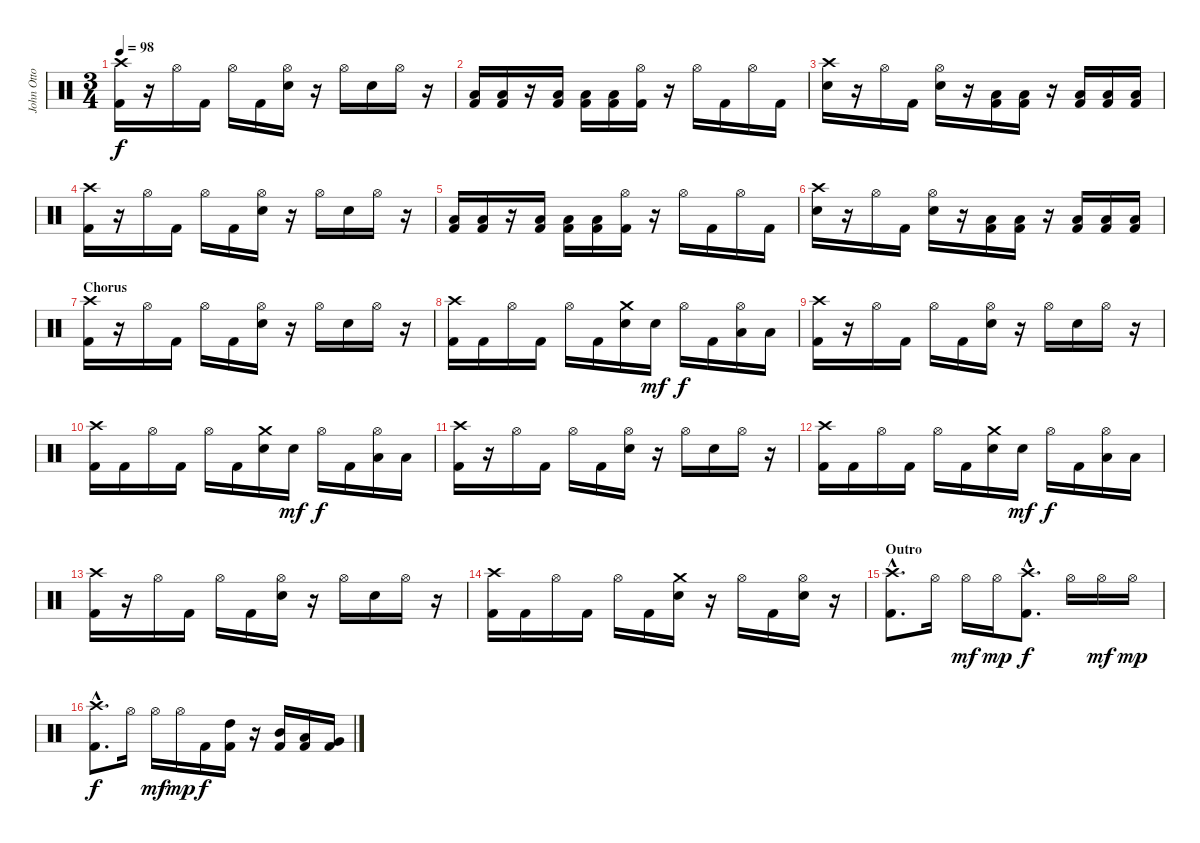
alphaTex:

\track ("John Otto - Drums" "John Otto ") {instrument percussion}
\staff {score}
\articulation defaults
\ts (3 4)
\tempo 98
\clef neutral
\ks c
("Crash high (hit)" "Kick (hit) 2").16{dy f} r.16 "Hi-Hat (open)".16 "Kick (hit) 2".16 "Hi-Hat (open)".16 "Kick (hit) 2".16 ("Hi-Hat (open)" "Electric Snare (hit)").16 r.16 "Hi-Hat (open)".16 "Electric Snare (hit)".16 "Hi-Hat (open)".16 r.16 |
("Kick (hit) 2" "Low Tom (hit)").16 ("Kick (hit) 2" "Low Tom (hit)").16 r.16 ("Kick (hit) 2" "Low Tom (hit)").16 ("Kick (hit) 2" "Low Tom (hit)").16 ("Kick (hit) 2" "Low Tom (hit)").16 ("Hi-Hat (open)" "Kick (hit) 2").16 r.16 "Hi-Hat (open)".16 "Kick (hit) 2".16 "Hi-Hat (open)".16 "Kick (hit) 2".16 |
("Crash high (hit)" "Electric Snare (hit)").16 r.16 "Hi-Hat (open)".16 "Kick (hit) 2".16 ("Hi-Hat (open)" "Electric Snare (hit)").16 r.16 ("Kick (hit) 2" "Low Tom (hit)").16 ("Kick (hit) 2" "Low Tom (hit)").16 r.16 ("Kick (hit) 2" "Low Tom (hit)").16 ("Kick (hit) 2" "Low Tom (hit)").16 ("Kick (hit) 2" "Low Tom (hit)").16 |
("Crash high (hit)" "Kick (hit) 2").16 r.16 "Hi-Hat (open)".16 "Kick (hit) 2".16 "Hi-Hat (open)".16 "Kick (hit) 2".16 ("Hi-Hat (open)" "Electric Snare (hit)").16 r.16 "Hi-Hat (open)".16 "Electric Snare (hit)".16 "Hi-Hat (open)".16 r.16 |
("Kick (hit) 2" "Low Tom (hit)").16 ("Kick (hit) 2" "Low Tom (hit)").16 r.16 ("Kick (hit) 2" "Low Tom (hit)").16 ("Kick (hit) 2" "Low Tom (hit)").16 ("Kick (hit) 2" "Low Tom (hit)").16 ("Hi-Hat (open)" "Kick (hit) 2").16 r.16 "Hi-Hat (open)".16 "Kick (hit) 2".16 "Hi-Hat (open)".16 "Kick (hit) 2".16 |
("Crash high (hit)" "Electric Snare (hit)").16 r.16 "Hi-Hat (open)".16 "Kick (hit) 2".16 ("Hi-Hat (open)" "Electric Snare (hit)").16 r.16 ("Kick (hit) 2" "Low Tom (hit)").16 ("Kick (hit) 2" "Low Tom (hit)").16 r.16 ("Kick (hit) 2" "Low Tom (hit)").16 ("Kick (hit) 2" "Low Tom (hit)").16 ("Kick (hit) 2" "Low Tom (hit)").16 |
\section ("" "Chorus")
("Crash high (hit)" "Kick (hit) 2").16 r.16 "Hi-Hat (open)".16 "Kick (hit) 2".16 "Hi-Hat (open)".16 "Kick (hit) 2".16 ("Hi-Hat (open)" "Electric Snare (hit)").16 r.16 "Hi-Hat (open)".16 "Electric Snare (hit)".16 "Hi-Hat (open)".16 r.16 |
("Crash high (hit)" "Kick (hit) 2").16 "Kick (hit) 2".16 "Hi-Hat (open)".16 "Kick (hit) 2".16 "Hi-Hat (open)".16 "Kick (hit) 2".16 ("Crash medium (hit)" "Electric Snare (hit)").16 "Electric Snare (hit)".16{dy mf} "Hi-Hat (open)".16{dy f} "Kick (hit) 2".16 ("Hi-Hat (open)" "Low Tom (hit)").16 "Low Tom (hit)".16 |
("Crash high (hit)" "Kick (hit) 2").16 r.16 "Hi-Hat (open)".16 "Kick (hit) 2".16 "Hi-Hat (open)".16 "Kick (hit) 2".16 ("Hi-Hat (open)" "Electric Snare (hit)").16 r.16 "Hi-Hat (open)".16 "Electric Snare (hit)".16 "Hi-Hat (open)".16 r.16 |
("Crash high (hit)" "Kick (hit) 2").16 "Kick (hit) 2".16 "Hi-Hat (open)".16 "Kick (hit) 2".16 "Hi-Hat (open)".16 "Kick (hit) 2".16 ("Crash medium (hit)" "Electric Snare (hit)").16 "Electric Snare (hit)".16{dy mf} "Hi-Hat (open)".16{dy f} "Kick (hit) 2".16 ("Hi-Hat (open)" "Low Tom (hit)").16 "Low Tom (hit)".16 |
("Crash high (hit)" "Kick (hit) 2").16 r.16 "Hi-Hat (open)".16 "Kick (hit) 2".16 "Hi-Hat (open)".16 "Kick (hit) 2".16 ("Hi-Hat (open)" "Electric Snare (hit)").16 r.16 "Hi-Hat (open)".16 "Electric Snare (hit)".16 "Hi-Hat (open)".16 r.16 |
("Crash high (hit)" "Kick (hit) 2").16 "Kick (hit) 2".16 "Hi-Hat (open)".16 "Kick (hit) 2".16 "Hi-Hat (open)".16 "Kick (hit) 2".16 ("Crash medium (hit)" "Electric Snare (hit)").16 "Electric Snare (hit)".16{dy mf} "Hi-Hat (open)".16{dy f} "Kick (hit) 2".16 ("Hi-Hat (open)" "Low Tom (hit)").16 "Low Tom (hit)".16 |
("Crash high (hit)" "Kick (hit) 2").16 r.16 "Hi-Hat (open)".16 "Kick (hit) 2".16 "Hi-Hat (open)".16 "Kick (hit) 2".16 ("Hi-Hat (open)" "Electric Snare (hit)").16 r.16 "Hi-Hat (open)".16 "Electric Snare (hit)".16 "Hi-Hat (open)".16 r.16 |
("Crash high (hit)" "Kick (hit) 2").16 "Kick (hit) 2".16 "Hi-Hat (open)".16 "Kick (hit) 2".16 "Hi-Hat (open)".16 "Kick (hit) 2".16 ("Crash medium (hit)" "Electric Snare (hit)").16 r.16 "Hi-Hat (open)".16 "Kick (hit) 2".16 ("Hi-Hat (open)" "Electric Snare (hit)").16 r.16 |
\section ("" "Outro")
("Crash high (hit)"{hac} "Kick (hit) 2"{hac}).8{d} "Hi-Hat (open)".16 "Hi-Hat (open)".16{dy mf} "Hi-Hat (open)".16{dy mp} ("Crash high (hit)"{hac} "Kick (hit) 2"{hac}).8{d dy f} "Hi-Hat (open)".16 "Hi-Hat (open)".16{dy mf} "Hi-Hat (open)".16{dy mp} |
("Crash high (hit)"{hac} "Kick (hit) 2"{hac}).8{d dy f} "Hi-Hat (open)".16 "Hi-Hat (open)".16{dy mf} "Hi-Hat (open)".16{dy mp} "Kick (hit) 2".16{dy f} ("High Tom (hit)" "Kick (hit) 2").16 r.16 ("Mid Tom (hit)" "Kick (hit) 2").16 ("Low Tom (hit)" "Kick (hit) 2").16 ("Very Low Tom (hit)" "Kick (hit) 2").16
